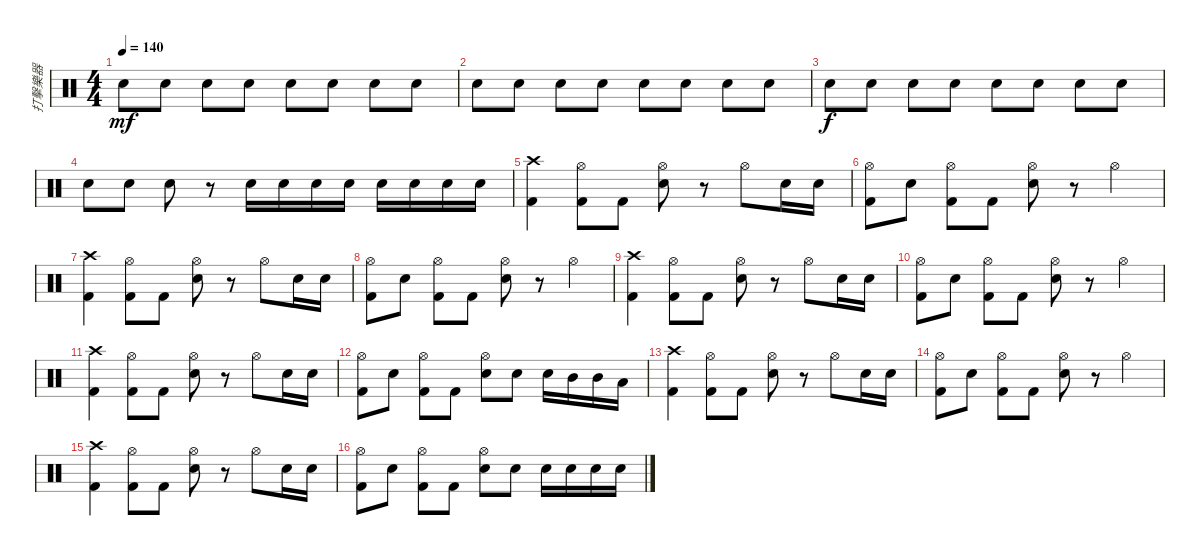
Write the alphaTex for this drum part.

\track ("打擊樂器" "打擊樂器") {instrument percussion}
\staff {score}
\articulation defaults
\ts (4 4)
\tempo 140
\clef neutral
\ks c "Electric Snare (hit)".8{dy mf} "Electric Snare (hit)".8 "Electric Snare (hit)".8 "Electric Snare (hit)".8 "Electric Snare (hit)".8 "Electric Snare (hit)".8 "Electric Snare (hit)".8 "Electric Snare (hit)".8
|
"Electric Snare (hit)".8 "Electric Snare (hit)".8 "Electric Snare (hit)".8 "Electric Snare (hit)".8 "Electric Snare (hit)".8 "Electric Snare (hit)".8 "Electric Snare (hit)".8 "Electric Snare (hit)".8 |
"Electric Snare (hit)".8{dy f} "Electric Snare (hit)".8 "Electric Snare (hit)".8 "Electric Snare (hit)".8 "Electric Snare (hit)".8 "Electric Snare (hit)".8 "Electric Snare (hit)".8 "Electric Snare (hit)".8 |
"Electric Snare (hit)".8 "Electric Snare (hit)".8 "Electric Snare (hit)".8 r.8 "Electric Snare (hit)".16 "Electric Snare (hit)".16 "Electric Snare (hit)".16 "Electric Snare (hit)".16 "Electric Snare (hit)".16 "Electric Snare (hit)".16 "Electric Snare (hit)".16 "Electric Snare (hit)".16 |
("Crash high (hit)" "Kick (hit) 2").4 ("Hi-Hat (open)" "Kick (hit) 2").8 "Kick (hit) 2".8 ("Hi-Hat (open)" "Electric Snare (hit)").8 r.8 "Hi-Hat (open)".8 "Electric Snare (hit)".16 "Electric Snare (hit)".16 |
("Hi-Hat (open)" "Kick (hit) 2").8 "Electric Snare (hit)".8 ("Hi-Hat (open)" "Kick (hit) 2").8 "Kick (hit) 2".8 ("Hi-Hat (open)" "Electric Snare (hit)").8 r.8 "Hi-Hat (open)".4 |
("Crash high (hit)" "Kick (hit) 2").4 ("Hi-Hat (open)" "Kick (hit) 2").8 "Kick (hit) 2".8 ("Hi-Hat (open)" "Electric Snare (hit)").8 r.8 "Hi-Hat (open)".8 "Electric Snare (hit)".16 "Electric Snare (hit)".16 |
("Hi-Hat (open)" "Kick (hit) 2").8 "Electric Snare (hit)".8 ("Hi-Hat (open)" "Kick (hit) 2").8 "Kick (hit) 2".8 ("Hi-Hat (open)" "Electric Snare (hit)").8 r.8 "Hi-Hat (open)".4 |
("Crash high (hit)" "Kick (hit) 2").4 ("Hi-Hat (open)" "Kick (hit) 2").8 "Kick (hit) 2".8 ("Hi-Hat (open)" "Electric Snare (hit)").8 r.8 "Hi-Hat (open)".8 "Electric Snare (hit)".16 "Electric Snare (hit)".16 |
("Hi-Hat (open)" "Kick (hit) 2").8 "Electric Snare (hit)".8 ("Hi-Hat (open)" "Kick (hit) 2").8 "Kick (hit) 2".8 ("Hi-Hat (open)" "Electric Snare (hit)").8 r.8 "Hi-Hat (open)".4 |
("Crash high (hit)" "Kick (hit) 2").4 ("Hi-Hat (open)" "Kick (hit) 2").8 "Kick (hit) 2".8 ("Hi-Hat (open)" "Electric Snare (hit)").8 r.8 "Hi-Hat (open)".8 "Electric Snare (hit)".16 "Electric Snare (hit)".16 |
("Hi-Hat (open)" "Kick (hit) 2").8 "Electric Snare (hit)".8 ("Hi-Hat (open)" "Kick (hit) 2").8 "Kick (hit) 2".8 ("Hi-Hat (open)" "Electric Snare (hit)").8 "Electric Snare (hit)".8 "Electric Snare (hit)".16 "Mid Tom (hit)".16 "Mid Tom (hit)".16 "Low Tom (hit)".16 |
("Crash high (hit)" "Kick (hit) 2").4 ("Hi-Hat (open)" "Kick (hit) 2").8 "Kick (hit) 2".8 ("Hi-Hat (open)" "Electric Snare (hit)").8 r.8 "Hi-Hat (open)".8 "Electric Snare (hit)".16 "Electric Snare (hit)".16 |
("Hi-Hat (open)" "Kick (hit) 2").8 "Electric Snare (hit)".8 ("Hi-Hat (open)" "Kick (hit) 2").8 "Kick (hit) 2".8 ("Hi-Hat (open)" "Electric Snare (hit)").8 r.8 "Hi-Hat (open)".4 |
("Crash high (hit)" "Kick (hit) 2").4 ("Hi-Hat (open)" "Kick (hit) 2").8 "Kick (hit) 2".8 ("Hi-Hat (open)" "Electric Snare (hit)").8 r.8 "Hi-Hat (open)".8 "Electric Snare (hit)".16 "Electric Snare (hit)".16 |
("Hi-Hat (open)" "Kick (hit) 2").8 "Electric Snare (hit)".8 ("Hi-Hat (open)" "Kick (hit) 2").8 "Kick (hit) 2".8 ("Hi-Hat (open)" "Electric Snare (hit)").8 "Electric Snare (hit)".8 "Electric Snare (hit)".16 "Electric Snare (hit)".16 "Electric Snare (hit)".16 "Electric Snare (hit)".16
